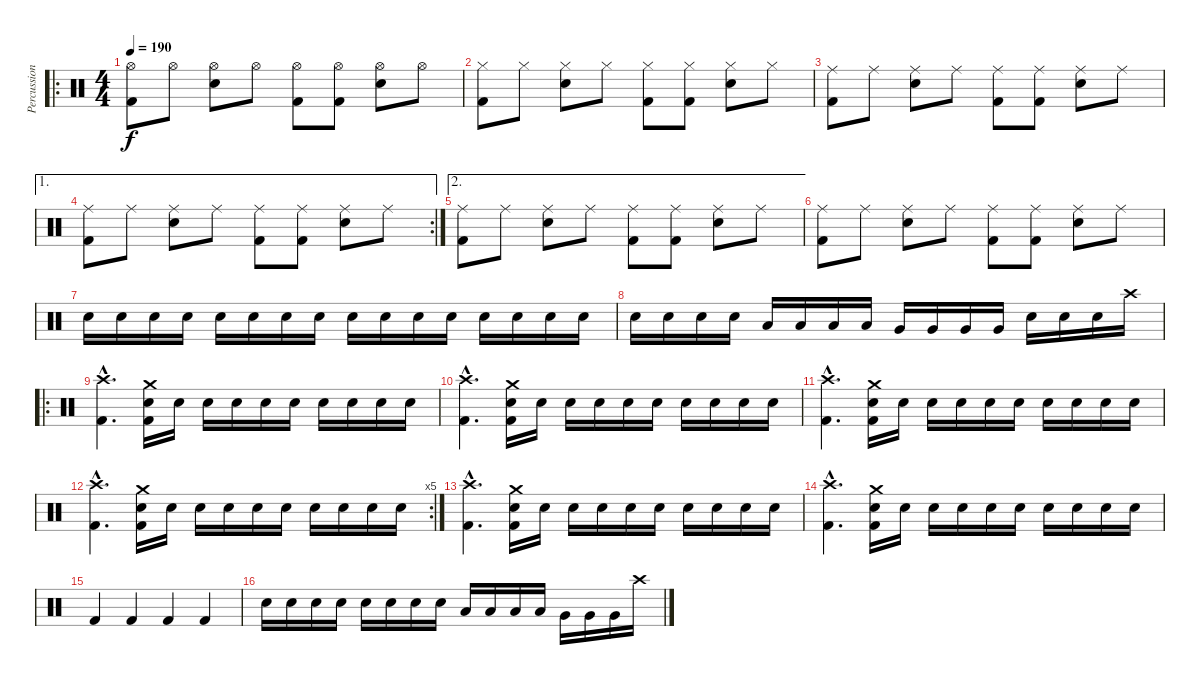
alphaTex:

\track ("Percussion" "Percussion") {instrument percussion}
\staff {score}
\articulation defaults
\ro
\ts (4 4)
\tempo 190
\clef neutral
\ks c
("Hi-Hat (open)" "Kick (hit) 2").8{dy f} "Hi-Hat (open)".8 ("Hi-Hat (open)" "Electric Snare (hit)").8 "Hi-Hat (open)".8 ("Hi-Hat (open)" "Kick (hit) 2").8 ("Hi-Hat (open)" "Kick (hit) 2").8 ("Hi-Hat (open)" "Electric Snare (hit)").8 "Hi-Hat (open)".8 |
("Hi-Hat (closed)" "Kick (hit) 2").8 "Hi-Hat (closed)".8 ("Hi-Hat (closed)" "Electric Snare (hit)").8 "Hi-Hat (closed)".8 ("Hi-Hat (closed)" "Kick (hit) 2").8 ("Hi-Hat (closed)" "Kick (hit) 2").8 ("Hi-Hat (closed)" "Electric Snare (hit)").8 "Hi-Hat (closed)".8 |
("Ride (middle)" "Kick (hit) 2").8 "Ride (middle)".8 ("Ride (middle)" "Electric Snare (hit)").8 "Ride (middle)".8 ("Ride (middle)" "Kick (hit) 2").8 ("Ride (middle)" "Kick (hit) 2").8 ("Ride (middle)" "Electric Snare (hit)").8 "Ride (middle)".8 |
\ae 1
\rc 2
("Ride (middle)" "Kick (hit) 2").8 "Ride (middle)".8 ("Ride (middle)" "Electric Snare (hit)").8 "Ride (middle)".8 ("Ride (middle)" "Kick (hit) 2").8 ("Ride (middle)" "Kick (hit) 2").8 ("Ride (middle)" "Electric Snare (hit)").8 "Ride (middle)".8 |
\ae 2
("Ride (middle)" "Kick (hit) 2").8 "Ride (middle)".8 ("Ride (middle)" "Electric Snare (hit)").8 "Ride (middle)".8 ("Ride (middle)" "Kick (hit) 2").8 ("Ride (middle)" "Kick (hit) 2").8 ("Ride (middle)" "Electric Snare (hit)").8 "Ride (middle)".8 |
("Ride (middle)" "Kick (hit) 2").8 "Ride (middle)".8 ("Ride (middle)" "Electric Snare (hit)").8 "Ride (middle)".8 ("Ride (middle)" "Kick (hit) 2").8 ("Ride (middle)" "Kick (hit) 2").8 ("Ride (middle)" "Electric Snare (hit)").8 "Ride (middle)".8 |
"Electric Snare (hit)".16 "Electric Snare (hit)".16 "Electric Snare (hit)".16 "Electric Snare (hit)".16 "Electric Snare (hit)".16 "Electric Snare (hit)".16 "Electric Snare (hit)".16 "Electric Snare (hit)".16 "Electric Snare (hit)".16 "Electric Snare (hit)".16 "Electric Snare (hit)".16 "Electric Snare (hit)".16 "Electric Snare (hit)".16 "Electric Snare (hit)".16 "Electric Snare (hit)".16 "Electric Snare (hit)".16 |
"Electric Snare (hit)".16 "Electric Snare (hit)".16 "Electric Snare (hit)".16 "Electric Snare (hit)".16 "Low Tom (hit)".16 "Low Tom (hit)".16 "Low Tom (hit)".16 "Low Tom (hit)".16 "Very Low Tom (hit)".16 "Very Low Tom (hit)".16 "Very Low Tom (hit)".16 "Very Low Tom (hit)".16 "Electric Snare (hit)".16 "Electric Snare (hit)".16 "Electric Snare (hit)".16 "Crash high (hit)".16 |
\ro
("Crash high (hit)"{hac} "Kick (hit) 2"{hac}).4{d} ("Crash medium (hit)" "Electric Snare (hit)" "Kick (hit) 2").16 "Electric Snare (hit)".16 "Electric Snare (hit)".16 "Electric Snare (hit)".16 "Electric Snare (hit)".16 "Electric Snare (hit)".16 "Electric Snare (hit)".16 "Electric Snare (hit)".16 "Electric Snare (hit)".16 "Electric Snare (hit)".16 |
("Crash high (hit)"{hac} "Kick (hit) 2"{hac}).4{d} ("Crash medium (hit)" "Electric Snare (hit)" "Kick (hit) 2").16 "Electric Snare (hit)".16 "Electric Snare (hit)".16 "Electric Snare (hit)".16 "Electric Snare (hit)".16 "Electric Snare (hit)".16 "Electric Snare (hit)".16 "Electric Snare (hit)".16 "Electric Snare (hit)".16 "Electric Snare (hit)".16 |
("Crash high (hit)"{hac} "Kick (hit) 2"{hac}).4{d} ("Crash medium (hit)" "Electric Snare (hit)" "Kick (hit) 2").16 "Electric Snare (hit)".16 "Electric Snare (hit)".16 "Electric Snare (hit)".16 "Electric Snare (hit)".16 "Electric Snare (hit)".16 "Electric Snare (hit)".16 "Electric Snare (hit)".16 "Electric Snare (hit)".16 "Electric Snare (hit)".16 |
\rc 5
("Crash high (hit)"{hac} "Kick (hit) 2"{hac}).4{d} ("Crash medium (hit)" "Electric Snare (hit)" "Kick (hit) 2").16 "Electric Snare (hit)".16 "Electric Snare (hit)".16 "Electric Snare (hit)".16 "Electric Snare (hit)".16 "Electric Snare (hit)".16 "Electric Snare (hit)".16 "Electric Snare (hit)".16 "Electric Snare (hit)".16 "Electric Snare (hit)".16 |
("Crash high (hit)"{hac} "Kick (hit) 2"{hac}).4{d} ("Crash medium (hit)" "Electric Snare (hit)" "Kick (hit) 2").16 "Electric Snare (hit)".16 "Electric Snare (hit)".16 "Electric Snare (hit)".16 "Electric Snare (hit)".16 "Electric Snare (hit)".16 "Electric Snare (hit)".16 "Electric Snare (hit)".16 "Electric Snare (hit)".16 "Electric Snare (hit)".16 |
("Crash high (hit)"{hac} "Kick (hit) 2"{hac}).4{d} ("Crash medium (hit)" "Electric Snare (hit)" "Kick (hit) 2").16 "Electric Snare (hit)".16 "Electric Snare (hit)".16 "Electric Snare (hit)".16 "Electric Snare (hit)".16 "Electric Snare (hit)".16 "Electric Snare (hit)".16 "Electric Snare (hit)".16 "Electric Snare (hit)".16 "Electric Snare (hit)".16 |
"Kick (hit) 2".4 "Kick (hit) 2".4 "Kick (hit) 2".4 "Kick (hit) 2".4 |
"Electric Snare (hit)".16 "Electric Snare (hit)".16 "Electric Snare (hit)".16 "Electric Snare (hit)".16 "Electric Snare (hit)".16 "Electric Snare (hit)".16 "Electric Snare (hit)".16 "Electric Snare (hit)".16 "Low Tom (hit)".16 "Low Tom (hit)".16 "Low Tom (hit)".16 "Low Tom (hit)".16 "Very Low Tom (hit)".16 "Very Low Tom (hit)".16 "Very Low Tom (hit)".16 "Crash high (hit)".16
